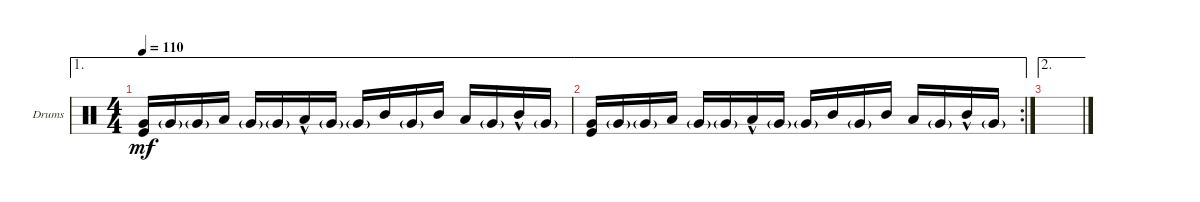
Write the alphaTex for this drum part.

\defaultSystemsLayout 4
\bracketExtendMode groupsimilarinstruments
\firstSystemTrackNameOrientation horizontal
\otherSystemsTrackNameOrientation horizontal
\track ("Drumkit" "Drums") {instrument percussion}
\staff {score}
\articulation defaults
\ae 1
\ts (4 4)
\tempo 110
\clef neutral
\scale
0.322034
\ks c
("Very Low Tom (hit)" "Kick (hit)").16{dy mf} "Very Low Tom (hit)"{g}.16 "Very Low Tom (hit)"{g}.16 "Low Tom (hit)".16 "Very Low Tom (hit)"{g}.16 "Very Low Tom (hit)"{g}.16 "Low Tom (hit)"{hac}.16 "Very Low Tom (hit)"{g}.16 "Very Low Tom (hit)"{g}.16 "Mid Tom (hit)".16 "Very Low Tom (hit)"{g}.16 "Mid Tom (hit)".16 "Low Tom (hit)".16 "Very Low Tom (hit)"{g}.16 "Mid Tom (hit)"{hac}.16 "Very Low Tom (hit)"{g}.16 |
\ae 1
\rc 2
\scale
0.355932 ("Very Low Tom (hit)" "Kick (hit)").16 "Very Low Tom (hit)"{g}.16 "Very Low Tom (hit)"{g}.16 "Low Tom (hit)".16 "Very Low Tom (hit)"{g}.16 "Very Low Tom (hit)"{g}.16 "Low Tom (hit)"{hac}.16 "Very Low Tom (hit)"{g}.16 "Very Low Tom (hit)"{g}.16 "Mid Tom (hit)".16 "Very Low Tom (hit)"{g}.16 "Mid Tom (hit)".16 "Low Tom (hit)".16 "Very Low Tom (hit)"{g}.16 "Mid Tom (hit)"{hac}.16 "Very Low Tom (hit)"{g}.16 |
\ae 2
\scale
0.333333 |
\scale
0.333333 |
\scale
0.333333 |
\scale
0.333333 |
\scale
0.333333 |
\scale
0.333333 |
\scale
0.333333 |
\scale
0.333333 |
\scale
0.333333 |
\scale
0.333333 |
\scale
0.333333 |
\scale
0.333333 |
\scale
0.333333 |
\scale
0.333333
